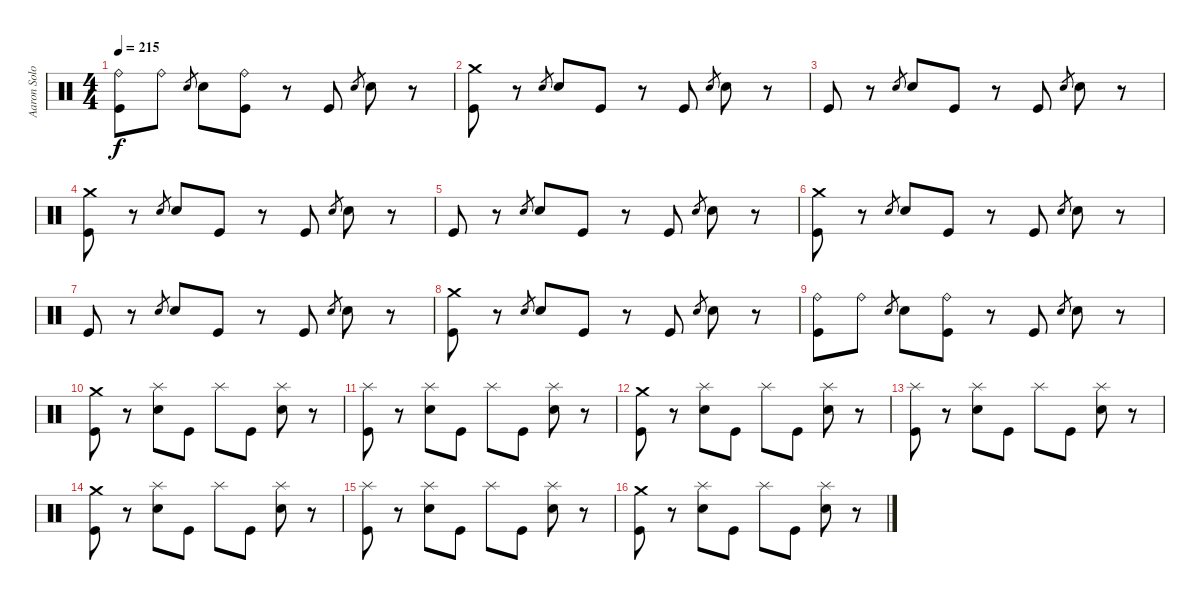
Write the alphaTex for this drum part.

\track ("Aaron Solowoniuk" "Aaron Solo") {instrument percussion}
\staff {score}
\articulation defaults
\ts (4 4)
\tempo 215
\clef neutral
\ks c
("Ride (bell)" "Kick (hit)").8{dy f} "Ride (bell)".8 "Electric Snare (hit)".8{gr} "Electric Snare (hit)".8 ("Ride (bell)" "Kick (hit)").8 r.8 "Kick (hit)".8 "Electric Snare (hit)".8{gr} "Electric Snare (hit)".8 r.8 |
("Crash medium (hit)" "Kick (hit)").8 r.8 "Electric Snare (hit)".8{gr} "Electric Snare (hit)".8 "Kick (hit)".8 r.8 "Kick (hit)".8 "Electric Snare (hit)".8{gr} "Electric Snare (hit)".8 r.8 |
"Kick (hit)".8 r.8 "Electric Snare (hit)".8{gr} "Electric Snare (hit)".8 "Kick (hit)".8 r.8 "Kick (hit)".8 "Electric Snare (hit)".8{gr} "Electric Snare (hit)".8 r.8 |
("Crash medium (hit)" "Kick (hit)").8 r.8 "Electric Snare (hit)".8{gr} "Electric Snare (hit)".8 "Kick (hit)".8 r.8 "Kick (hit)".8 "Electric Snare (hit)".8{gr} "Electric Snare (hit)".8 r.8 |
"Kick (hit)".8 r.8 "Electric Snare (hit)".8{gr} "Electric Snare (hit)".8 "Kick (hit)".8 r.8 "Kick (hit)".8 "Electric Snare (hit)".8{gr} "Electric Snare (hit)".8 r.8 |
("Crash medium (hit)" "Kick (hit)").8 r.8 "Electric Snare (hit)".8{gr} "Electric Snare (hit)".8 "Kick (hit)".8 r.8 "Kick (hit)".8 "Electric Snare (hit)".8{gr} "Electric Snare (hit)".8 r.8 |
"Kick (hit)".8 r.8 "Electric Snare (hit)".8{gr} "Electric Snare (hit)".8 "Kick (hit)".8 r.8 "Kick (hit)".8 "Electric Snare (hit)".8{gr} "Electric Snare (hit)".8 r.8 |
("Crash medium (hit)" "Kick (hit)").8 r.8 "Electric Snare (hit)".8{gr} "Electric Snare (hit)".8 "Kick (hit)".8 r.8 "Kick (hit)".8 "Electric Snare (hit)".8{gr} "Electric Snare (hit)".8 r.8 |
("Ride (bell)" "Kick (hit)").8 "Ride (bell)".8 "Electric Snare (hit)".8{gr} "Electric Snare (hit)".8 ("Ride (bell)" "Kick (hit)").8 r.8 "Kick (hit)".8 "Electric Snare (hit)".8{gr} "Electric Snare (hit)".8 r.8 |
("Crash medium (hit)" "Kick (hit)").8 r.8 ("Splash (hit)" "Electric Snare (hit)").8 "Kick (hit)".8 "Splash (hit)".8 "Kick (hit)".8 ("Splash (hit)" "Electric Snare (hit)").8 r.8 |
("Splash (hit)" "Kick (hit)").8 r.8 ("Splash (hit)" "Electric Snare (hit)").8 "Kick (hit)".8 "Splash (hit)".8 "Kick (hit)".8 ("Splash (hit)" "Electric Snare (hit)").8 r.8 |
("Crash medium (hit)" "Kick (hit)").8 r.8 ("Splash (hit)" "Electric Snare (hit)").8 "Kick (hit)".8 "Splash (hit)".8 "Kick (hit)".8 ("Splash (hit)" "Electric Snare (hit)").8 r.8 |
("Splash (hit)" "Kick (hit)").8 r.8 ("Splash (hit)" "Electric Snare (hit)").8 "Kick (hit)".8 "Splash (hit)".8 "Kick (hit)".8 ("Splash (hit)" "Electric Snare (hit)").8 r.8 |
("Crash medium (hit)" "Kick (hit)").8 r.8 ("Splash (hit)" "Electric Snare (hit)").8 "Kick (hit)".8 "Splash (hit)".8 "Kick (hit)".8 ("Splash (hit)" "Electric Snare (hit)").8 r.8 |
("Splash (hit)" "Kick (hit)").8 r.8 ("Splash (hit)" "Electric Snare (hit)").8 "Kick (hit)".8 "Splash (hit)".8 "Kick (hit)".8 ("Splash (hit)" "Electric Snare (hit)").8 r.8 |
("Crash medium (hit)" "Kick (hit)").8 r.8 ("Splash (hit)" "Electric Snare (hit)").8 "Kick (hit)".8 "Splash (hit)".8 "Kick (hit)".8 ("Splash (hit)" "Electric Snare (hit)").8 r.8
